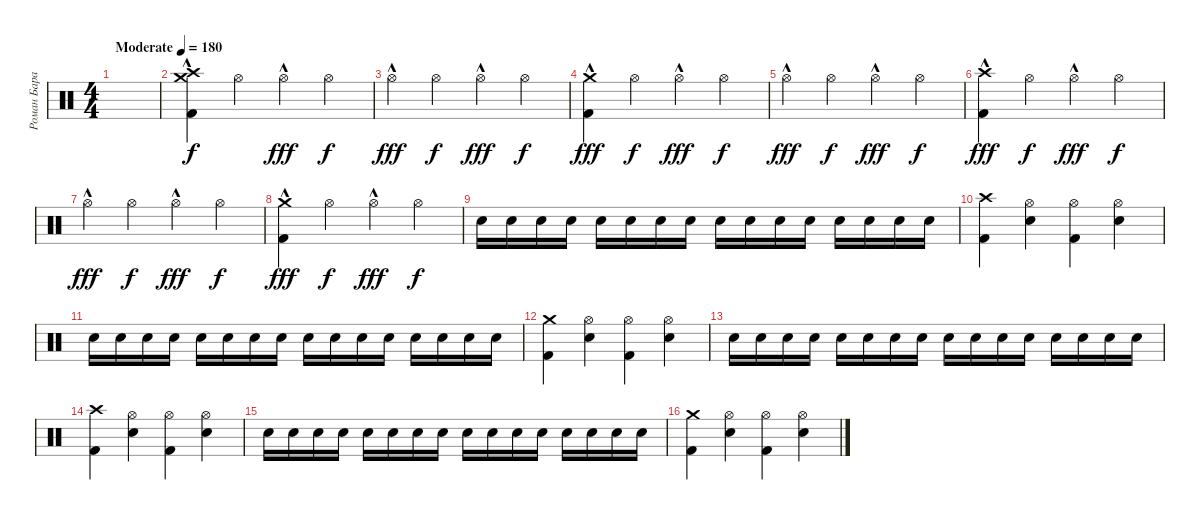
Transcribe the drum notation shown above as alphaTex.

\track ("Роман Баранюк" "Роман Бара") {instrument percussion}
\staff {score}
\articulation defaults
\ts (4 4)
\tempo (180 "Moderate")
\clef neutral
\ks c
|
("Crash high (hit)"{hac} "Crash medium (hit)" "Kick (hit) 2").4 "Hi-Hat (open)".4{dy f} "Hi-Hat (open)"{hac}.4{dy fff} "Hi-Hat (open)".4{dy f} |
"Hi-Hat (open)"{hac}.4{dy fff} "Hi-Hat (open)".4{dy f} "Hi-Hat (open)"{hac}.4{dy fff} "Hi-Hat (open)".4{dy f} |
("Crash medium (hit)"{hac} "Kick (hit) 2").4{dy fff} "Hi-Hat (open)".4{dy f} "Hi-Hat (open)"{hac}.4{dy fff} "Hi-Hat (open)".4{dy f} |
"Hi-Hat (open)"{hac}.4{dy fff} "Hi-Hat (open)".4{dy f} "Hi-Hat (open)"{hac}.4{dy fff} "Hi-Hat (open)".4{dy f} |
("Crash high (hit)"{hac} "Kick (hit) 2").4{dy fff} "Hi-Hat (open)".4{dy f} "Hi-Hat (open)"{hac}.4{dy fff} "Hi-Hat (open)".4{dy f} |
"Hi-Hat (open)"{hac}.4{dy fff} "Hi-Hat (open)".4{dy f} "Hi-Hat (open)"{hac}.4{dy fff} "Hi-Hat (open)".4{dy f} |
("Crash medium (hit)"{hac} "Kick (hit) 2").4{dy fff} "Hi-Hat (open)".4{dy f} "Hi-Hat (open)"{hac}.4{dy fff} "Hi-Hat (open)".4{dy f} |
"Snare (hit) 2".16 "Snare (hit) 2".16 "Snare (hit) 2".16 "Snare (hit) 2".16 "Snare (hit) 2".16 "Snare (hit) 2".16 "Snare (hit) 2".16 "Snare (hit) 2".16 "Snare (hit) 2".16 "Snare (hit) 2".16 "Snare (hit) 2".16 "Snare (hit) 2".16 "Snare (hit) 2".16 "Snare (hit) 2".16 "Snare (hit) 2".16 "Snare (hit) 2".16 |
("Crash high (hit)" "Kick (hit) 2").4 ("Hi-Hat (open)" "Snare (hit) 2").4 ("Hi-Hat (open)" "Kick (hit) 2").4 ("Hi-Hat (open)" "Snare (hit) 2").4 |
"Snare (hit) 2".16 "Snare (hit) 2".16 "Snare (hit) 2".16 "Snare (hit) 2".16 "Snare (hit) 2".16 "Snare (hit) 2".16 "Snare (hit) 2".16 "Snare (hit) 2".16 "Snare (hit) 2".16 "Snare (hit) 2".16 "Snare (hit) 2".16 "Snare (hit) 2".16 "Snare (hit) 2".16 "Snare (hit) 2".16 "Snare (hit) 2".16 "Snare (hit) 2".16 |
("Crash medium (hit)" "Kick (hit) 2").4 ("Hi-Hat (open)" "Snare (hit) 2").4 ("Hi-Hat (open)" "Kick (hit) 2").4 ("Hi-Hat (open)" "Snare (hit) 2").4 |
"Snare (hit) 2".16 "Snare (hit) 2".16 "Snare (hit) 2".16 "Snare (hit) 2".16 "Snare (hit) 2".16 "Snare (hit) 2".16 "Snare (hit) 2".16 "Snare (hit) 2".16 "Snare (hit) 2".16 "Snare (hit) 2".16 "Snare (hit) 2".16 "Snare (hit) 2".16 "Snare (hit) 2".16 "Snare (hit) 2".16 "Snare (hit) 2".16 "Snare (hit) 2".16 |
("Crash high (hit)" "Kick (hit) 2").4 ("Hi-Hat (open)" "Snare (hit) 2").4 ("Hi-Hat (open)" "Kick (hit) 2").4 ("Hi-Hat (open)" "Snare (hit) 2").4 |
"Snare (hit) 2".16 "Snare (hit) 2".16 "Snare (hit) 2".16 "Snare (hit) 2".16 "Snare (hit) 2".16 "Snare (hit) 2".16 "Snare (hit) 2".16 "Snare (hit) 2".16 "Snare (hit) 2".16 "Snare (hit) 2".16 "Snare (hit) 2".16 "Snare (hit) 2".16 "Snare (hit) 2".16 "Snare (hit) 2".16 "Snare (hit) 2".16 "Snare (hit) 2".16 |
("Crash medium (hit)" "Kick (hit) 2").4 ("Hi-Hat (open)" "Snare (hit) 2").4 ("Hi-Hat (open)" "Kick (hit) 2").4 ("Hi-Hat (open)" "Snare (hit) 2").4
